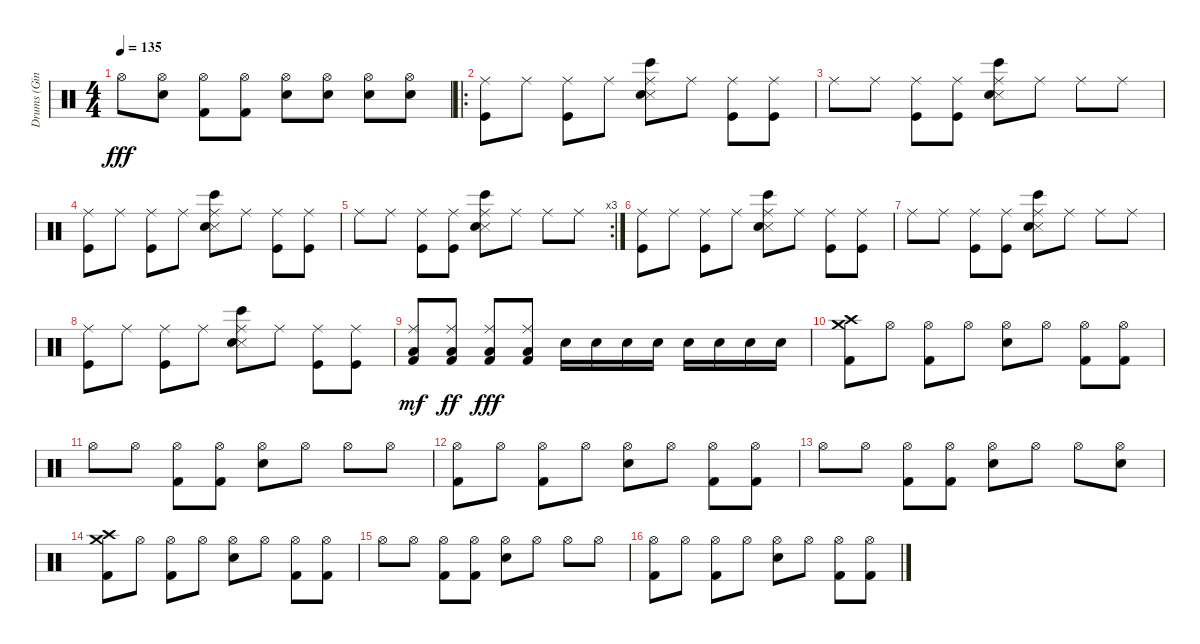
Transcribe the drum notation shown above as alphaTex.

\track ("Drums (Ginger Fish)" "Drums (Gin") {instrument percussion}
\staff {score}
\articulation defaults
\ts (4 4)
\tempo 135
\clef neutral
\ks c "Hi-Hat (open)".8{dy fff}
("Hi-Hat (open)" "Electric Snare (hit)").8 ("Hi-Hat (open)" "Kick (hit) 2").8 ("Hi-Hat (open)" "Kick (hit) 2").8 ("Hi-Hat (open)" "Electric Snare (hit)").8 ("Hi-Hat (open)" "Electric Snare (hit)").8 ("Hi-Hat (open)" "Electric Snare (hit)").8 ("Hi-Hat (open)" "Electric Snare (hit)").8 |
\ro
("Ride (middle)" "Kick (hit)").8 "Ride (middle)".8 ("Ride (middle)" "Kick (hit)").8 "Ride (middle)".8 ("Ride (middle)" "Snare (side stick) 3" "Snare (hit) 2" "Bongo High (hit)").8 "Ride (middle)".8 ("Ride (middle)" "Kick (hit)").8 ("Ride (middle)" "Kick (hit)").8 |
"Ride (middle)".8 "Ride (middle)".8 ("Ride (middle)" "Kick (hit)").8 ("Ride (middle)" "Kick (hit)").8 ("Ride (middle)" "Snare (side stick) 3" "Snare (hit) 2" "Bongo High (hit)").8 "Ride (middle)".8 "Ride (middle)".8 "Ride (middle)".8 |
("Ride (middle)" "Kick (hit)").8 "Ride (middle)".8 ("Ride (middle)" "Kick (hit)").8 "Ride (middle)".8 ("Ride (middle)" "Snare (side stick) 3" "Snare (hit) 2" "Bongo High (hit)").8 "Ride (middle)".8 ("Ride (middle)" "Kick (hit)").8 ("Ride (middle)" "Kick (hit)").8 |
\rc 3 "Ride (middle)".8 "Ride (middle)".8
("Ride (middle)" "Kick (hit)").8 ("Ride (middle)" "Kick (hit)").8 ("Ride (middle)" "Snare (side stick) 3" "Snare (hit) 2" "Bongo High (hit)").8 "Ride (middle)".8 "Ride (middle)".8 "Ride (middle)".8 |
("Ride (middle)" "Kick (hit)").8 "Ride (middle)".8 ("Ride (middle)" "Kick (hit)").8 "Ride (middle)".8 ("Ride (middle)" "Snare (side stick) 3" "Snare (hit) 2" "Bongo High (hit)").8 "Ride (middle)".8 ("Ride (middle)" "Kick (hit)").8 ("Ride (middle)" "Kick (hit)").8 |
"Ride (middle)".8 "Ride (middle)".8 ("Ride (middle)" "Kick (hit)").8 ("Ride (middle)" "Kick (hit)").8 ("Ride (middle)" "Snare (side stick) 3" "Snare (hit) 2" "Bongo High (hit)").8 "Ride (middle)".8 "Ride (middle)".8 "Ride (middle)".8 |
("Ride (middle)" "Kick (hit)").8 "Ride (middle)".8 ("Ride (middle)" "Kick (hit)").8 "Ride (middle)".8 ("Ride (middle)" "Snare (side stick) 3" "Snare (hit) 2" "Bongo High (hit)").8 "Ride (middle)".8 ("Ride (middle)" "Kick (hit)").8 ("Ride (middle)" "Kick (hit)").8 |
("Ride (middle)" "Low Floor Tom (hit)" "Kick (hit) 2").8{dy mf} ("Ride (middle)" "Low Floor Tom (hit)" "Kick (hit) 2").8{dy ff} ("Ride (middle)" "Low Floor Tom (hit)" "Kick (hit) 2").8{dy fff} ("Ride (middle)" "Low Floor Tom (hit)" "Kick (hit) 2").8 "Electric Snare (hit)".16 "Electric Snare (hit)".16 "Electric Snare (hit)".16 "Electric Snare (hit)".16 "Electric Snare (hit)".16 "Electric Snare (hit)".16 "Electric Snare (hit)".16 "Electric Snare (hit)".16 |
("Crash high (hit)" "Crash medium (hit)" "Kick (hit) 2").8 "Hi-Hat (open)".8 ("Hi-Hat (open)" "Kick (hit) 2").8 "Hi-Hat (open)".8 ("Hi-Hat (open)" "Electric Snare (hit)").8 "Hi-Hat (open)".8 ("Hi-Hat (open)" "Kick (hit) 2").8 ("Hi-Hat (open)" "Kick (hit) 2").8 |
"Hi-Hat (open)".8 "Hi-Hat (open)".8 ("Hi-Hat (open)" "Kick (hit) 2").8 ("Hi-Hat (open)" "Kick (hit) 2").8 ("Hi-Hat (open)" "Electric Snare (hit)").8 "Hi-Hat (open)".8 "Hi-Hat (open)".8 "Hi-Hat (open)".8 |
("Hi-Hat (open)" "Kick (hit) 2").8 "Hi-Hat (open)".8 ("Hi-Hat (open)" "Kick (hit) 2").8 "Hi-Hat (open)".8 ("Hi-Hat (open)" "Electric Snare (hit)").8 "Hi-Hat (open)".8 ("Hi-Hat (open)" "Kick (hit) 2").8 ("Hi-Hat (open)" "Kick (hit) 2").8 |
"Hi-Hat (open)".8 "Hi-Hat (open)".8 ("Hi-Hat (open)" "Kick (hit) 2").8 ("Hi-Hat (open)" "Kick (hit) 2").8 ("Hi-Hat (open)" "Electric Snare (hit)").8 "Hi-Hat (open)".8 "Hi-Hat (open)".8 ("Hi-Hat (open)" "Electric Snare (hit)").8 |
("Crash high (hit)" "Crash medium (hit)" "Kick (hit) 2").8 "Hi-Hat (open)".8 ("Hi-Hat (open)" "Kick (hit) 2").8 "Hi-Hat (open)".8 ("Hi-Hat (open)" "Electric Snare (hit)").8 "Hi-Hat (open)".8 ("Hi-Hat (open)" "Kick (hit) 2").8 ("Hi-Hat (open)" "Kick (hit) 2").8 |
"Hi-Hat (open)".8 "Hi-Hat (open)".8 ("Hi-Hat (open)" "Kick (hit) 2").8 ("Hi-Hat (open)" "Kick (hit) 2").8 ("Hi-Hat (open)" "Electric Snare (hit)").8 "Hi-Hat (open)".8 "Hi-Hat (open)".8 "Hi-Hat (open)".8 |
("Hi-Hat (open)" "Kick (hit) 2").8 "Hi-Hat (open)".8 ("Hi-Hat (open)" "Kick (hit) 2").8 "Hi-Hat (open)".8 ("Hi-Hat (open)" "Electric Snare (hit)").8 "Hi-Hat (open)".8 ("Hi-Hat (open)" "Kick (hit) 2").8 ("Hi-Hat (open)" "Kick (hit) 2").8
